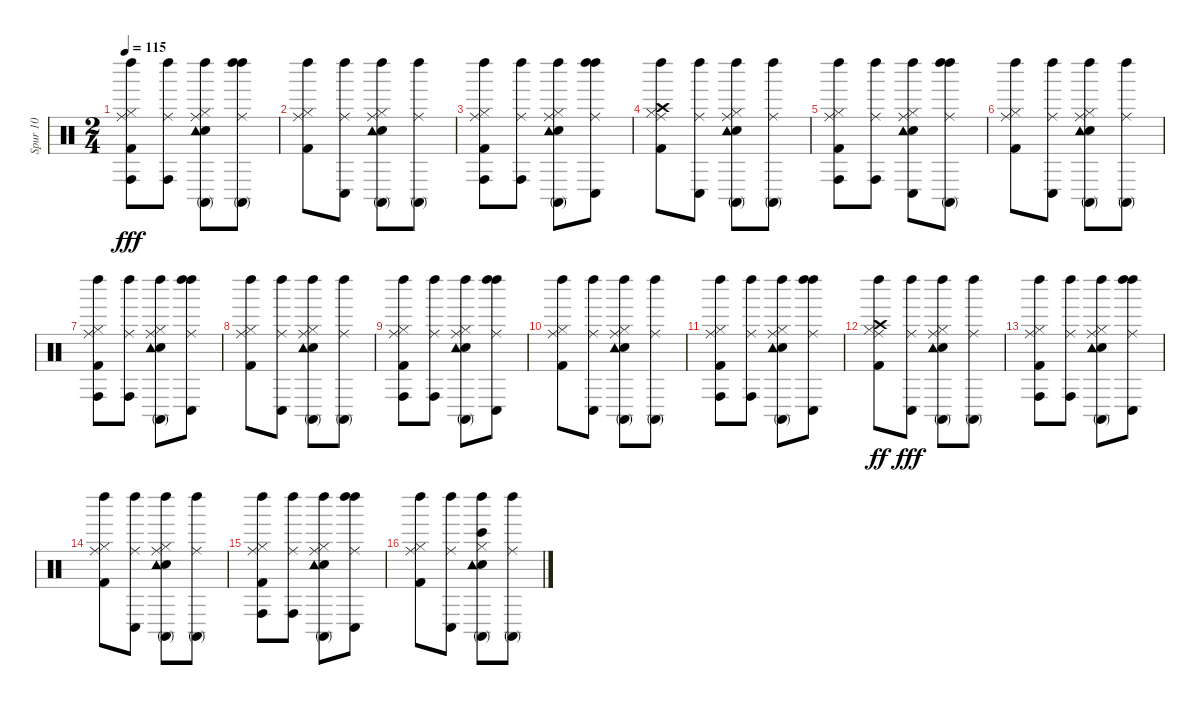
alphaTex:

\track ("Spur 10" "Spur 10") {instrument percussion}
\staff {score}
\articulation defaults
\ts (2 4)
\tempo 115
\clef neutral
\ks c
("Left Maraca (hit)" "Hi-Hat (closed)" "Kick (hit) 2" "Conga high (hit)" "Ride (middle)").8{dy fff} ("Left Maraca (hit)" "Conga high (hit)" "Ride (middle)").8 ("Conga high (mute)" "Left Maraca (hit)" "Hi-Hat (closed)" "Electric Snare (hit)" "Tambourine (hit)" "Ride (middle)").8 ("Left Maraca (hit)" "Left Maraca (hit)" "Conga high (mute)" "Ride (middle)").8 |
("Left Maraca (hit)" "Hi-Hat (closed)" "Kick (hit) 2" "Ride (middle)").8 ("Left Maraca (hit)" "Conga low (hit)" "Ride (middle)").8 ("Left Maraca (hit)" "Hi-Hat (closed)" "Electric Snare (hit)" "Tambourine (hit)" "Conga high (mute)" "Ride (middle)").8 ("Left Maraca (hit)" "Conga high (mute)" "Ride (middle)").8 |
("Left Maraca (hit)" "Hi-Hat (closed)" "Kick (hit) 2" "Conga high (hit)" "Ride (middle)").8 ("Left Maraca (hit)" "Conga high (hit)" "Ride (middle)").8 ("Left Maraca (hit)" "Hi-Hat (closed)" "Electric Snare (hit)" "Tambourine (hit)" "Conga high (mute)" "Ride (middle)").8 ("Left Maraca (hit)" "Left Maraca (hit)" "Conga low (hit)" "Ride (middle)").8 |
("Crash high (hit)" "Left Maraca (hit)" "Hi-Hat (closed)" "Kick (hit) 2" "Ride (middle)").8 ("Left Maraca (hit)" "Conga low (hit)" "Ride (middle)").8 ("Left Maraca (hit)" "Hi-Hat (closed)" "Electric Snare (hit)" "Tambourine (hit)" "Conga high (mute)" "Ride (middle)").8 ("Left Maraca (hit)" "Conga high (mute)" "Ride (middle)").8 |
("Left Maraca (hit)" "Hi-Hat (closed)" "Kick (hit) 2" "Conga high (hit)" "Ride (middle)").8 ("Left Maraca (hit)" "Conga high (hit)" "Ride (middle)").8 ("Left Maraca (hit)" "Hi-Hat (closed)" "Electric Snare (hit)" "Tambourine (hit)" "Conga low (hit)" "Ride (middle)").8 ("Left Maraca (hit)" "Ride (middle)" "Left Maraca (hit)" "Conga high (mute)").8 |
("Left Maraca (hit)" "Hi-Hat (closed)" "Kick (hit) 2" "Ride (middle)").8 ("Left Maraca (hit)" "Conga low (hit)" "Ride (middle)").8 ("Left Maraca (hit)" "Hi-Hat (closed)" "Electric Snare (hit)" "Tambourine (hit)" "Conga high (mute)" "Ride (middle)").8 ("Ride (middle)" "Left Maraca (hit)" "Conga high (mute)").8 |
("Left Maraca (hit)" "Hi-Hat (closed)" "Kick (hit) 2" "Conga high (hit)" "Ride (middle)").8 ("Left Maraca (hit)" "Conga high (hit)" "Ride (middle)").8 ("Left Maraca (hit)" "Hi-Hat (closed)" "Electric Snare (hit)" "Tambourine (hit)" "Conga high (mute)" "Ride (middle)").8 ("Left Maraca (hit)" "Ride (middle)" "Left Maraca (hit)" "Conga low (hit)").8 |
("Left Maraca (hit)" "Hi-Hat (closed)" "Kick (hit) 2" "Ride (middle)").8 ("Left Maraca (hit)" "Conga low (hit)" "Ride (middle)").8 ("Ride (middle)" "Left Maraca (hit)" "Hi-Hat (closed)" "Electric Snare (hit)" "Tambourine (hit)" "Conga high (mute)").8 ("Left Maraca (hit)" "Conga high (mute)" "Ride (middle)").8 |
("Left Maraca (hit)" "Hi-Hat (closed)" "Kick (hit) 2" "Conga high (hit)" "Ride (middle)").8 ("Left Maraca (hit)" "Conga high (hit)" "Ride (middle)").8 ("Left Maraca (hit)" "Hi-Hat (closed)" "Electric Snare (hit)" "Tambourine (hit)" "Conga high (mute)" "Ride (middle)").8 ("Left Maraca (hit)" "Left Maraca (hit)" "Conga low (hit)" "Ride (middle)").8 |
("Left Maraca (hit)" "Hi-Hat (closed)" "Kick (hit) 2" "Ride (middle)").8 ("Left Maraca (hit)" "Conga low (hit)" "Ride (middle)").8 ("Left Maraca (hit)" "Hi-Hat (closed)" "Electric Snare (hit)" "Tambourine (hit)" "Conga high (mute)" "Ride (middle)").8 ("Left Maraca (hit)" "Conga high (mute)" "Ride (middle)").8 |
("Left Maraca (hit)" "Hi-Hat (closed)" "Kick (hit) 2" "Conga high (hit)" "Ride (middle)").8 ("Left Maraca (hit)" "Conga high (hit)" "Ride (middle)").8 ("Left Maraca (hit)" "Hi-Hat (closed)" "Electric Snare (hit)" "Tambourine (hit)" "Conga high (mute)" "Ride (middle)").8 ("Left Maraca (hit)" "Ride (middle)" "Left Maraca (hit)" "Conga low (hit)").8 |
("Ride (middle)" "Left Maraca (hit)" "Hi-Hat (closed)" "Kick (hit) 2" "Crash high (hit)").8{dy ff} ("Left Maraca (hit)" "Conga low (hit)" "Ride (middle)").8{dy fff} ("Left Maraca (hit)" "Hi-Hat (closed)" "Electric Snare (hit)" "Tambourine (hit)" "Conga high (mute)" "Ride (middle)").8 ("Left Maraca (hit)" "Conga high (mute)" "Ride (middle)").8 |
("Left Maraca (hit)" "Hi-Hat (closed)" "Kick (hit) 2" "Conga high (hit)" "Ride (middle)").8 ("Ride (middle)" "Left Maraca (hit)" "Conga high (hit)").8 ("Left Maraca (hit)" "Hi-Hat (closed)" "Electric Snare (hit)" "Tambourine (hit)" "Conga high (mute)" "Ride (middle)").8 ("Left Maraca (hit)" "Left Maraca (hit)" "Conga low (hit)" "Ride (middle)").8 |
("Left Maraca (hit)" "Hi-Hat (closed)" "Kick (hit) 2" "Ride (middle)").8 ("Left Maraca (hit)" "Conga low (hit)" "Ride (middle)").8 ("Left Maraca (hit)" "Hi-Hat (closed)" "Electric Snare (hit)" "Tambourine (hit)" "Conga high (mute)" "Ride (middle)").8 ("Left Maraca (hit)" "Conga high (mute)" "Ride (middle)").8 |
("Left Maraca (hit)" "Hi-Hat (closed)" "Kick (hit) 2" "Conga high (hit)" "Ride (middle)").8 ("Left Maraca (hit)" "Conga high (hit)" "Ride (middle)").8 ("Left Maraca (hit)" "Hi-Hat (closed)" "Electric Snare (hit)" "Tambourine (hit)" "Conga high (mute)" "Ride (middle)").8 ("Left Maraca (hit)" "Left Maraca (hit)" "Conga low (hit)" "Ride (middle)").8 |
("Left Maraca (hit)" "Hi-Hat (closed)" "Kick (hit) 2" "Ride (middle)").8 ("Conga low (hit)" "Left Maraca (hit)" "Ride (middle)").8 ("Left Maraca (hit)" "Hi-Hat (closed)" "Electric Snare (hit)" "Tambourine (hit)" "Conga high (mute)" "Bongo High (hit)").8 ("Left Maraca (hit)" "Conga high (mute)" "Ride (middle)").8
